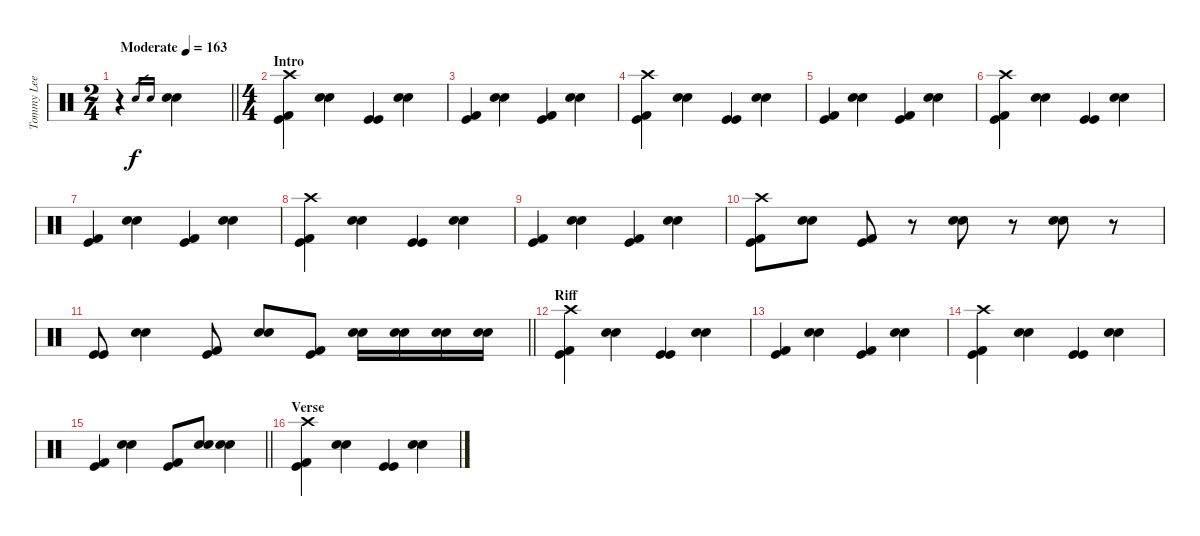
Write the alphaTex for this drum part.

\track ("Tommy Lee" "Tommy Lee") {instrument percussion}
\staff {score}
\articulation defaults
\ts (2 4)
\tempo (163 "Moderate")
\clef neutral
\barLineRight lightlight
\ks c
r.4{dy f} "Electric Snare (hit)".16{gr} "Snare (hit) 2".16{gr} ("Electric Snare (hit)" "Snare (hit) 2").4 |
\ts (4 4)
\section ("" "Intro")
("Crash high (hit)" "Kick (hit) 2" "Kick (hit)").4 ("Electric Snare (hit)" "Snare (hit) 2").4 ("Kick (hit)" "Kick (hit)").4 ("Electric Snare (hit)" "Snare (hit) 2").4 |
("Kick (hit) 2" "Kick (hit)").4 ("Electric Snare (hit)" "Snare (hit) 2").4 ("Kick (hit) 2" "Kick (hit)").4 ("Electric Snare (hit)" "Snare (hit) 2").4 |
("Crash high (hit)" "Kick (hit) 2" "Kick (hit)").4 ("Electric Snare (hit)" "Snare (hit) 2").4 ("Kick (hit)" "Kick (hit)").4 ("Electric Snare (hit)" "Snare (hit) 2").4 |
("Kick (hit) 2" "Kick (hit)").4 ("Electric Snare (hit)" "Snare (hit) 2").4 ("Kick (hit) 2" "Kick (hit)").4 ("Electric Snare (hit)" "Snare (hit) 2").4 |
("Crash high (hit)" "Kick (hit) 2" "Kick (hit)").4 ("Electric Snare (hit)" "Snare (hit) 2").4 ("Kick (hit)" "Kick (hit)").4 ("Electric Snare (hit)" "Snare (hit) 2").4 |
("Kick (hit) 2" "Kick (hit)").4 ("Electric Snare (hit)" "Snare (hit) 2").4 ("Kick (hit) 2" "Kick (hit)").4 ("Electric Snare (hit)" "Snare (hit) 2").4 |
("Crash high (hit)" "Kick (hit) 2" "Kick (hit)").4 ("Electric Snare (hit)" "Snare (hit) 2").4 ("Kick (hit)" "Kick (hit)").4 ("Electric Snare (hit)" "Snare (hit) 2").4 |
("Kick (hit) 2" "Kick (hit)").4 ("Electric Snare (hit)" "Snare (hit) 2").4 ("Kick (hit) 2" "Kick (hit)").4 ("Electric Snare (hit)" "Snare (hit) 2").4 |
("Crash high (hit)" "Kick (hit) 2" "Kick (hit)").8 ("Electric Snare (hit)" "Snare (hit) 2").8 ("Kick (hit) 2" "Kick (hit)").8 r.8 ("Electric Snare (hit)" "Snare (hit) 2").8 r.8 ("Electric Snare (hit)" "Snare (hit) 2").8 r.8 |
\barLineRight lightlight
("Kick (hit)" "Kick (hit)").8 ("Electric Snare (hit)" "Snare (hit) 2").4 ("Kick (hit) 2" "Kick (hit)").8 ("Electric Snare (hit)" "Snare (hit) 2").8 ("Kick (hit) 2" "Kick (hit)").8 ("Electric Snare (hit)" "Snare (hit) 2").16 ("Electric Snare (hit)" "Snare (hit) 2").16 ("Electric Snare (hit)" "Snare (hit) 2").16 ("Electric Snare (hit)" "Snare (hit) 2").16 |
\section ("" "Riff")
("Crash high (hit)" "Kick (hit) 2" "Kick (hit)").4 ("Electric Snare (hit)" "Snare (hit) 2").4 ("Kick (hit)" "Kick (hit)").4 ("Electric Snare (hit)" "Snare (hit) 2").4 |
("Kick (hit) 2" "Kick (hit)").4 ("Electric Snare (hit)" "Snare (hit) 2").4 ("Kick (hit) 2" "Kick (hit)").4 ("Electric Snare (hit)" "Snare (hit) 2").4 |
("Crash high (hit)" "Kick (hit) 2" "Kick (hit)").4 ("Electric Snare (hit)" "Snare (hit) 2").4 ("Kick (hit)" "Kick (hit)").4 ("Electric Snare (hit)" "Snare (hit) 2").4 |
\barLineRight lightlight
("Kick (hit) 2" "Kick (hit)").4 ("Electric Snare (hit)" "Snare (hit) 2").4 ("Kick (hit) 2" "Kick (hit)").8 ("Electric Snare (hit)" "Snare (hit) 2").8 ("Electric Snare (hit)" "Snare (hit) 2").4 |
\section ("" "Verse")
("Crash high (hit)" "Kick (hit) 2" "Kick (hit)").4 ("Electric Snare (hit)" "Snare (hit) 2").4 ("Kick (hit)" "Kick (hit)").4 ("Electric Snare (hit)" "Snare (hit) 2").4
